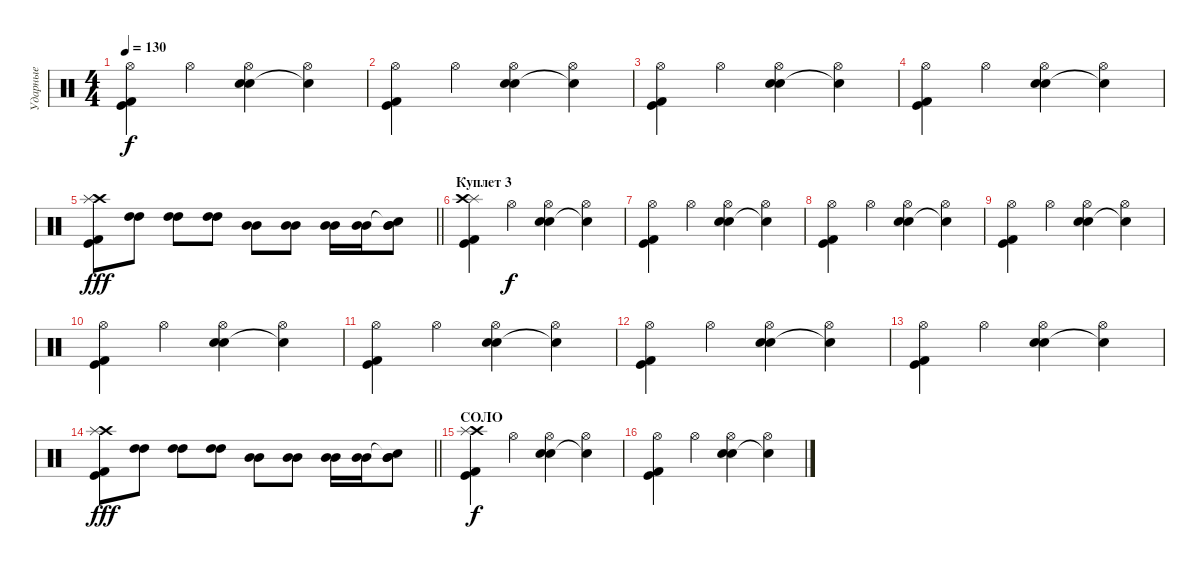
\track ("Ударные" "Ударные") {instrument percussion}
\staff {score}
\articulation defaults
\ts (4 4)
\tempo 130
\clef neutral
\ks c
("Hi-Hat (open)" "Kick (hit)" "Kick (hit) 2").4{dy f} "Hi-Hat (open)".4 ("Hi-Hat (open)" "Electric Snare (hit)" "Snare (hit) 2").4 ("Hi-Hat (open)" "Snare (hit)"{t}).4 |
("Hi-Hat (open)" "Kick (hit)" "Kick (hit) 2").4 "Hi-Hat (open)".4 ("Hi-Hat (open)" "Electric Snare (hit)" "Snare (hit) 2").4 ("Hi-Hat (open)" "Snare (hit)"{t}).4 |
("Hi-Hat (open)" "Kick (hit)" "Kick (hit) 2").4 "Hi-Hat (open)".4 ("Hi-Hat (open)" "Electric Snare (hit)" "Snare (hit) 2").4 ("Hi-Hat (open)" "Snare (hit)"{t}).4 |
("Hi-Hat (open)" "Kick (hit)" "Kick (hit) 2").4 "Hi-Hat (open)".4 ("Hi-Hat (open)" "Electric Snare (hit)" "Snare (hit) 2").4 ("Hi-Hat (open)" "Snare (hit)"{t}).4 |
\barLineRight lightlight
("Crash high (hit)" "Splash (hit)" "Kick (hit)" "Kick (hit) 2").8{dy fff} ("High Tom (hit)" "High Tom (hit)").8 ("High Tom (hit)" "High Tom (hit)").8 ("High Tom (hit)" "High Tom (hit)").8 ("Mid Tom (hit)" "Mid Tom (hit)").8 ("Mid Tom (hit)" "Mid Tom (hit)").8 ("Mid Tom (hit)" "Mid Tom (hit)").16 ("Mid Tom (hit)" "Mid Tom (hit)").16 ("Snare (hit)"{t} "Mid Tom (hit)" "Mid Tom (hit)").8 |
\section ("" "Куплет 3")
("Splash (hit)" "Crash high (hit)" "Kick (hit)" "Kick (hit) 2").4 "Hi-Hat (open)".4{dy f} ("Hi-Hat (open)" "Electric Snare (hit)" "Snare (hit) 2").4 ("Hi-Hat (open)" "Snare (hit)"{t}).4 |
("Hi-Hat (open)" "Kick (hit)" "Kick (hit) 2").4 "Hi-Hat (open)".4 ("Hi-Hat (open)" "Electric Snare (hit)" "Snare (hit) 2").4 ("Hi-Hat (open)" "Snare (hit)"{t}).4 |
("Hi-Hat (open)" "Kick (hit)" "Kick (hit) 2").4 "Hi-Hat (open)".4 ("Hi-Hat (open)" "Electric Snare (hit)" "Snare (hit) 2").4 ("Hi-Hat (open)" "Snare (hit)"{t}).4 |
("Hi-Hat (open)" "Kick (hit)" "Kick (hit) 2").4 "Hi-Hat (open)".4 ("Hi-Hat (open)" "Electric Snare (hit)" "Snare (hit) 2").4 ("Hi-Hat (open)" "Snare (hit)"{t}).4 |
("Hi-Hat (open)" "Kick (hit)" "Kick (hit) 2").4 "Hi-Hat (open)".4 ("Hi-Hat (open)" "Electric Snare (hit)" "Snare (hit) 2").4 ("Hi-Hat (open)" "Snare (hit)"{t}).4 |
("Hi-Hat (open)" "Kick (hit)" "Kick (hit) 2").4 "Hi-Hat (open)".4 ("Hi-Hat (open)" "Electric Snare (hit)" "Snare (hit) 2").4 ("Hi-Hat (open)" "Snare (hit)"{t}).4 |
("Hi-Hat (open)" "Kick (hit)" "Kick (hit) 2").4 "Hi-Hat (open)".4 ("Hi-Hat (open)" "Electric Snare (hit)" "Snare (hit) 2").4 ("Hi-Hat (open)" "Snare (hit)"{t}).4 |
("Hi-Hat (open)" "Kick (hit)" "Kick (hit) 2").4 "Hi-Hat (open)".4 ("Hi-Hat (open)" "Electric Snare (hit)" "Snare (hit) 2").4 ("Hi-Hat (open)" "Snare (hit)"{t}).4 |
\barLineRight lightlight
("Crash high (hit)" "Splash (hit)" "Kick (hit)" "Kick (hit) 2").8{dy fff} ("High Tom (hit)" "High Tom (hit)").8 ("High Tom (hit)" "High Tom (hit)").8 ("High Tom (hit)" "High Tom (hit)").8 ("Mid Tom (hit)" "Mid Tom (hit)").8 ("Mid Tom (hit)" "Mid Tom (hit)").8 ("Mid Tom (hit)" "Mid Tom (hit)").16 ("Mid Tom (hit)" "Mid Tom (hit)").16 ("Snare (hit)"{t} "Mid Tom (hit)" "Mid Tom (hit)").8 |
\section ("" "СОЛО")
("Crash high (hit)" "Splash (hit)" "Kick (hit)" "Kick (hit) 2").4{dy f} "Hi-Hat (open)".4 ("Hi-Hat (open)" "Electric Snare (hit)" "Snare (hit) 2").4 ("Hi-Hat (open)" "Snare (hit)"{t}).4 |
("Hi-Hat (open)" "Kick (hit)" "Kick (hit) 2").4 "Hi-Hat (open)".4 ("Hi-Hat (open)" "Electric Snare (hit)" "Snare (hit) 2").4 ("Hi-Hat (open)" "Snare (hit)"{t}).4
